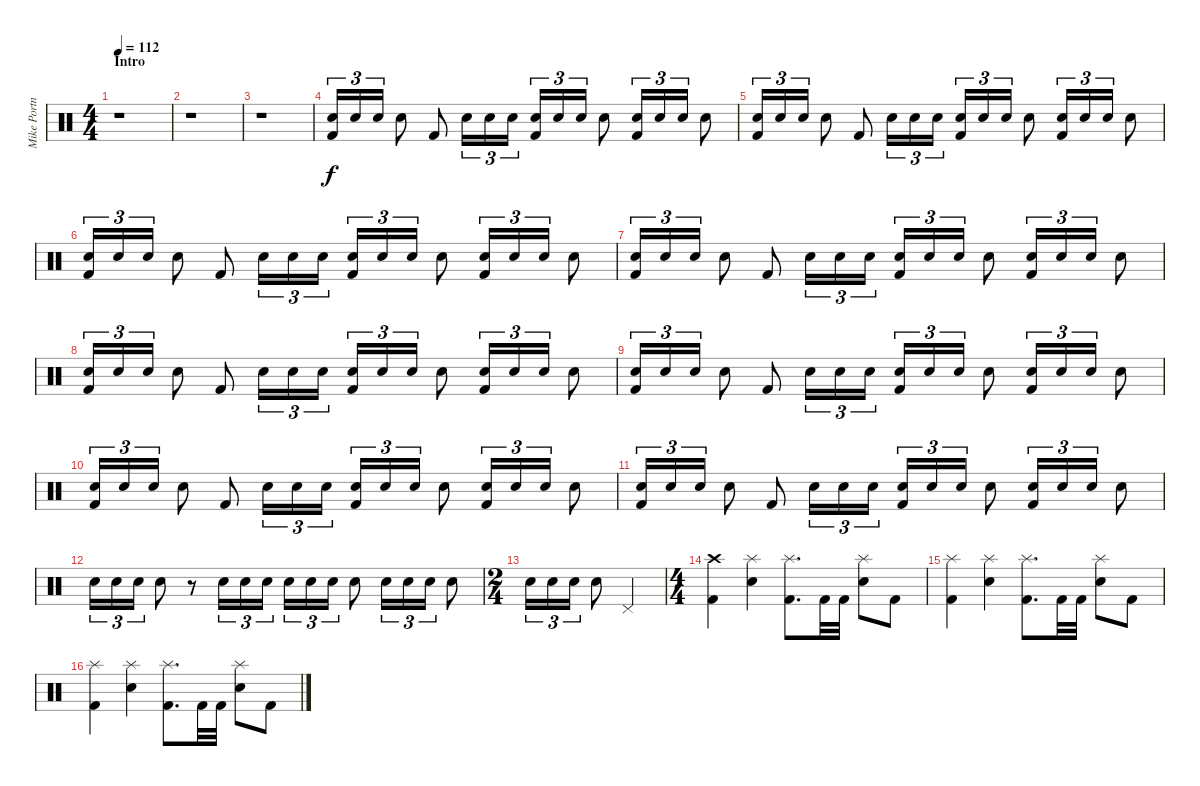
\track ("Mike Portnoy" "Mike Portn") {instrument percussion}
\staff {score}
\articulation defaults
\ts (4 4)
\section ("" "Intro")
\tempo 112
\clef neutral
\ks c
r.1{dy f} |
r.1 |
r.1 |
("Kick (hit) 2" "Electric Snare (hit)").16{tu (3 2)} "Electric Snare (hit)".16{tu (3 2)} "Electric Snare (hit)".16{tu (3 2)} "Electric Snare (hit)".8 "Kick (hit) 2".8 "Electric Snare (hit)".16{tu (3 2)} "Electric Snare (hit)".16{tu (3 2)} "Electric Snare (hit)".16{tu (3 2)} ("Kick (hit) 2" "Electric Snare (hit)").16{tu (3 2)} "Electric Snare (hit)".16{tu (3 2)} "Electric Snare (hit)".16{tu (3 2)} "Electric Snare (hit)".8 ("Kick (hit) 2" "Electric Snare (hit)").16{tu (3 2)} "Electric Snare (hit)".16{tu (3 2)} "Electric Snare (hit)".16{tu (3 2)} "Electric Snare (hit)".8 |
("Kick (hit) 2" "Electric Snare (hit)").16{tu (3 2)} "Electric Snare (hit)".16{tu (3 2)} "Electric Snare (hit)".16{tu (3 2)} "Electric Snare (hit)".8 "Kick (hit) 2".8 "Electric Snare (hit)".16{tu (3 2)} "Electric Snare (hit)".16{tu (3 2)} "Electric Snare (hit)".16{tu (3 2)} ("Kick (hit) 2" "Electric Snare (hit)").16{tu (3 2)} "Electric Snare (hit)".16{tu (3 2)} "Electric Snare (hit)".16{tu (3 2)} "Electric Snare (hit)".8 ("Kick (hit) 2" "Electric Snare (hit)").16{tu (3 2)} "Electric Snare (hit)".16{tu (3 2)} "Electric Snare (hit)".16{tu (3 2)} "Electric Snare (hit)".8 |
("Kick (hit) 2" "Electric Snare (hit)").16{tu (3 2)} "Electric Snare (hit)".16{tu (3 2)} "Electric Snare (hit)".16{tu (3 2)} "Electric Snare (hit)".8 "Kick (hit) 2".8 "Electric Snare (hit)".16{tu (3 2)} "Electric Snare (hit)".16{tu (3 2)} "Electric Snare (hit)".16{tu (3 2)} ("Kick (hit) 2" "Electric Snare (hit)").16{tu (3 2)} "Electric Snare (hit)".16{tu (3 2)} "Electric Snare (hit)".16{tu (3 2)} "Electric Snare (hit)".8 ("Kick (hit) 2" "Electric Snare (hit)").16{tu (3 2)} "Electric Snare (hit)".16{tu (3 2)} "Electric Snare (hit)".16{tu (3 2)} "Electric Snare (hit)".8 |
("Kick (hit) 2" "Electric Snare (hit)").16{tu (3 2)} "Electric Snare (hit)".16{tu (3 2)} "Electric Snare (hit)".16{tu (3 2)} "Electric Snare (hit)".8 "Kick (hit) 2".8 "Electric Snare (hit)".16{tu (3 2)} "Electric Snare (hit)".16{tu (3 2)} "Electric Snare (hit)".16{tu (3 2)} ("Kick (hit) 2" "Electric Snare (hit)").16{tu (3 2)} "Electric Snare (hit)".16{tu (3 2)} "Electric Snare (hit)".16{tu (3 2)} "Electric Snare (hit)".8 ("Kick (hit) 2" "Electric Snare (hit)").16{tu (3 2)} "Electric Snare (hit)".16{tu (3 2)} "Electric Snare (hit)".16{tu (3 2)} "Electric Snare (hit)".8 |
("Kick (hit) 2" "Electric Snare (hit)").16{tu (3 2)} "Electric Snare (hit)".16{tu (3 2)} "Electric Snare (hit)".16{tu (3 2)} "Electric Snare (hit)".8 "Kick (hit) 2".8 "Electric Snare (hit)".16{tu (3 2)} "Electric Snare (hit)".16{tu (3 2)} "Electric Snare (hit)".16{tu (3 2)} ("Kick (hit) 2" "Electric Snare (hit)").16{tu (3 2)} "Electric Snare (hit)".16{tu (3 2)} "Electric Snare (hit)".16{tu (3 2)} "Electric Snare (hit)".8 ("Kick (hit) 2" "Electric Snare (hit)").16{tu (3 2)} "Electric Snare (hit)".16{tu (3 2)} "Electric Snare (hit)".16{tu (3 2)} "Electric Snare (hit)".8 |
("Kick (hit) 2" "Electric Snare (hit)").16{tu (3 2)} "Electric Snare (hit)".16{tu (3 2)} "Electric Snare (hit)".16{tu (3 2)} "Electric Snare (hit)".8 "Kick (hit) 2".8 "Electric Snare (hit)".16{tu (3 2)} "Electric Snare (hit)".16{tu (3 2)} "Electric Snare (hit)".16{tu (3 2)} ("Kick (hit) 2" "Electric Snare (hit)").16{tu (3 2)} "Electric Snare (hit)".16{tu (3 2)} "Electric Snare (hit)".16{tu (3 2)} "Electric Snare (hit)".8 ("Kick (hit) 2" "Electric Snare (hit)").16{tu (3 2)} "Electric Snare (hit)".16{tu (3 2)} "Electric Snare (hit)".16{tu (3 2)} "Electric Snare (hit)".8 |
("Kick (hit) 2" "Electric Snare (hit)").16{tu (3 2)} "Electric Snare (hit)".16{tu (3 2)} "Electric Snare (hit)".16{tu (3 2)} "Electric Snare (hit)".8 "Kick (hit) 2".8 "Electric Snare (hit)".16{tu (3 2)} "Electric Snare (hit)".16{tu (3 2)} "Electric Snare (hit)".16{tu (3 2)} ("Kick (hit) 2" "Electric Snare (hit)").16{tu (3 2)} "Electric Snare (hit)".16{tu (3 2)} "Electric Snare (hit)".16{tu (3 2)} "Electric Snare (hit)".8 ("Kick (hit) 2" "Electric Snare (hit)").16{tu (3 2)} "Electric Snare (hit)".16{tu (3 2)} "Electric Snare (hit)".16{tu (3 2)} "Electric Snare (hit)".8 |
("Kick (hit) 2" "Electric Snare (hit)").16{tu (3 2)} "Electric Snare (hit)".16{tu (3 2)} "Electric Snare (hit)".16{tu (3 2)} "Electric Snare (hit)".8 "Kick (hit) 2".8 "Electric Snare (hit)".16{tu (3 2)} "Electric Snare (hit)".16{tu (3 2)} "Electric Snare (hit)".16{tu (3 2)} ("Kick (hit) 2" "Electric Snare (hit)").16{tu (3 2)} "Electric Snare (hit)".16{tu (3 2)} "Electric Snare (hit)".16{tu (3 2)} "Electric Snare (hit)".8 ("Kick (hit) 2" "Electric Snare (hit)").16{tu (3 2)} "Electric Snare (hit)".16{tu (3 2)} "Electric Snare (hit)".16{tu (3 2)} "Electric Snare (hit)".8 |
"Electric Snare (hit)".16{tu (3 2)} "Electric Snare (hit)".16{tu (3 2)} "Electric Snare (hit)".16{tu (3 2)} "Electric Snare (hit)".8 r.8 "Electric Snare (hit)".16{tu (3 2)} "Electric Snare (hit)".16{tu (3 2)} "Electric Snare (hit)".16{tu (3 2)} "Electric Snare (hit)".16{tu (3 2)} "Electric Snare (hit)".16{tu (3 2)} "Electric Snare (hit)".16{tu (3 2)} "Electric Snare (hit)".8 "Electric Snare (hit)".16{tu (3 2)} "Electric Snare (hit)".16{tu (3 2)} "Electric Snare (hit)".16{tu (3 2)} "Electric Snare (hit)".8 |
\ts (2 4)
"Electric Snare (hit)".16{tu (3 2)} "Electric Snare (hit)".16{tu (3 2)} "Electric Snare (hit)".16{tu (3 2)} "Electric Snare (hit)".8 "Pedal Hi-Hat (hit)".4 |
\ts (4 4)
("Kick (hit) 2" "Crash high (hit)").4 ("Electric Snare (hit)" "Splash (hit)").4 ("Kick (hit) 2" "Splash (hit)").8{d} "Kick (hit) 2".32 "Kick (hit) 2".32 ("Electric Snare (hit)" "Splash (hit)").8 "Kick (hit) 2".8 |
("Kick (hit) 2" "Splash (hit)").4 ("Electric Snare (hit)" "Splash (hit)").4 ("Kick (hit) 2" "Splash (hit)").8{d} "Kick (hit) 2".32 "Kick (hit) 2".32 ("Electric Snare (hit)" "Splash (hit)").8 "Kick (hit) 2".8 |
("Kick (hit) 2" "Splash (hit)").4 ("Electric Snare (hit)" "Splash (hit)").4 ("Kick (hit) 2" "Splash (hit)").8{d} "Kick (hit) 2".32 "Kick (hit) 2".32 ("Electric Snare (hit)" "Splash (hit)").8 "Kick (hit) 2".8
